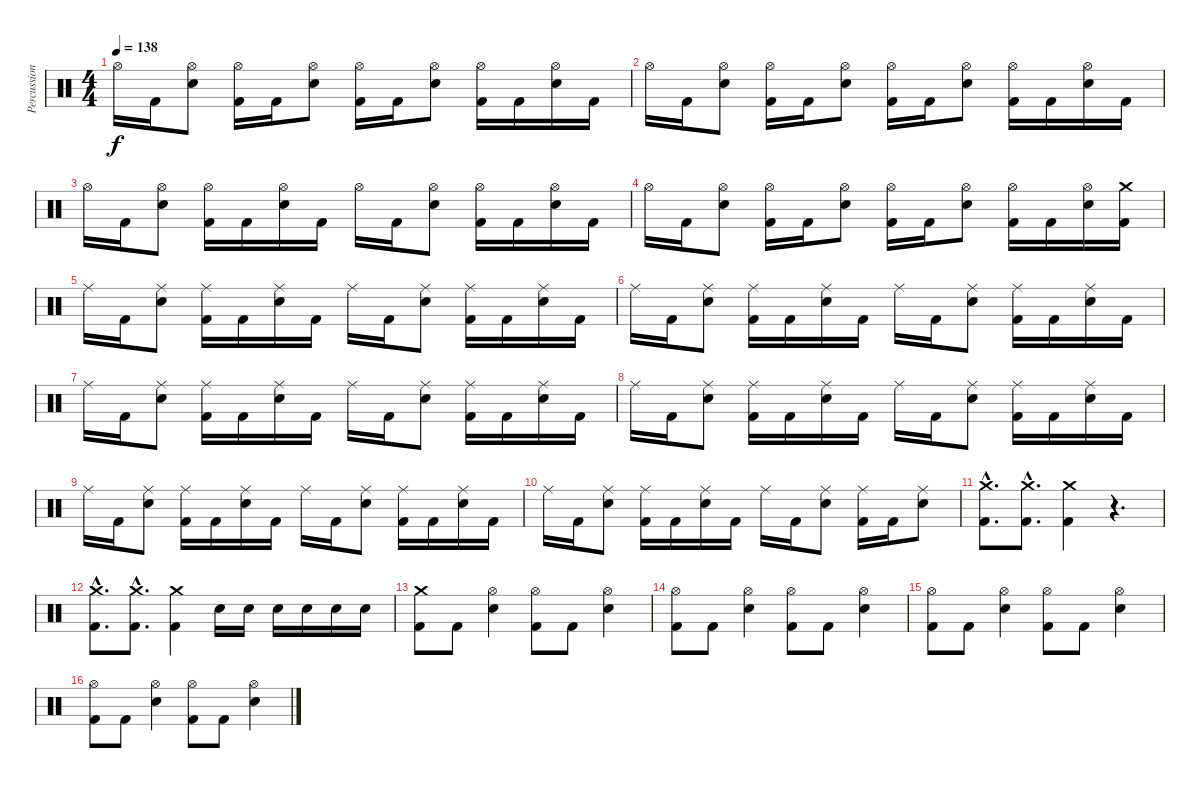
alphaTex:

\track ("Percussion" "Percussion") {instrument percussion}
\staff {score}
\articulation defaults
\ts (4 4)
\tempo 138
\clef neutral
\ks c "Hi-Hat (open)".16{dy f} "Kick (hit) 2".16
("Hi-Hat (open)" "Snare (hit) 2").8 ("Hi-Hat (open)" "Kick (hit) 2").16 "Kick (hit) 2".16 ("Hi-Hat (open)" "Snare (hit) 2").8 ("Hi-Hat (open)" "Kick (hit) 2").16 "Kick (hit) 2".16 ("Hi-Hat (open)" "Snare (hit) 2").8 ("Hi-Hat (open)" "Kick (hit) 2").16 "Kick (hit) 2".16 ("Hi-Hat (open)" "Snare (hit) 2").16 "Kick (hit) 2".16 |
"Hi-Hat (open)".16 "Kick (hit) 2".16 ("Hi-Hat (open)" "Snare (hit) 2").8 ("Hi-Hat (open)" "Kick (hit) 2").16 "Kick (hit) 2".16 ("Hi-Hat (open)" "Snare (hit) 2").8 ("Hi-Hat (open)" "Kick (hit) 2").16 "Kick (hit) 2".16 ("Hi-Hat (open)" "Snare (hit) 2").8 ("Hi-Hat (open)" "Kick (hit) 2").16 "Kick (hit) 2".16 ("Hi-Hat (open)" "Snare (hit) 2").16 "Kick (hit) 2".16 |
"Hi-Hat (open)".16 "Kick (hit) 2".16 ("Hi-Hat (open)" "Snare (hit) 2").8 ("Hi-Hat (open)" "Kick (hit) 2").16 "Kick (hit) 2".16 ("Hi-Hat (open)" "Snare (hit) 2").16 "Kick (hit) 2".16 "Hi-Hat (open)".16 "Kick (hit) 2".16 ("Hi-Hat (open)" "Snare (hit) 2").8 ("Hi-Hat (open)" "Kick (hit) 2").16 "Kick (hit) 2".16 ("Hi-Hat (open)" "Snare (hit) 2").16 "Kick (hit) 2".16 |
"Hi-Hat (open)".16 "Kick (hit) 2".16 ("Hi-Hat (open)" "Snare (hit) 2").8 ("Hi-Hat (open)" "Kick (hit) 2").16 "Kick (hit) 2".16 ("Hi-Hat (open)" "Snare (hit) 2").8 ("Hi-Hat (open)" "Kick (hit) 2").16 "Kick (hit) 2".16 ("Hi-Hat (open)" "Snare (hit) 2").8 ("Hi-Hat (open)" "Kick (hit) 2").16 "Kick (hit) 2".16 ("Hi-Hat (open)" "Snare (hit) 2").16 ("Crash medium (hit)" "Kick (hit) 2").16 |
"Ride (middle)".16 "Kick (hit) 2".16 ("Ride (middle)" "Snare (hit) 2").8 ("Ride (middle)" "Kick (hit) 2").16 "Kick (hit) 2".16 ("Ride (middle)" "Snare (hit) 2").16 "Kick (hit) 2".16 "Ride (middle)".16 "Kick (hit) 2".16 ("Ride (middle)" "Snare (hit) 2").8 ("Ride (middle)" "Kick (hit) 2").16 "Kick (hit) 2".16 ("Ride (middle)" "Snare (hit) 2").16 "Kick (hit) 2".16 |
"Ride (middle)".16 "Kick (hit) 2".16 ("Ride (middle)" "Snare (hit) 2").8 ("Ride (middle)" "Kick (hit) 2").16 "Kick (hit) 2".16 ("Ride (middle)" "Snare (hit) 2").16 "Kick (hit) 2".16 "Ride (middle)".16 "Kick (hit) 2".16 ("Ride (middle)" "Snare (hit) 2").8 ("Ride (middle)" "Kick (hit) 2").16 "Kick (hit) 2".16 ("Ride (middle)" "Snare (hit) 2").16 "Kick (hit) 2".16 |
"Ride (middle)".16 "Kick (hit) 2".16 ("Ride (middle)" "Snare (hit) 2").8 ("Ride (middle)" "Kick (hit) 2").16 "Kick (hit) 2".16 ("Ride (middle)" "Snare (hit) 2").16 "Kick (hit) 2".16 "Ride (middle)".16 "Kick (hit) 2".16 ("Ride (middle)" "Snare (hit) 2").8 ("Ride (middle)" "Kick (hit) 2").16 "Kick (hit) 2".16 ("Ride (middle)" "Snare (hit) 2").16 "Kick (hit) 2".16 |
"Ride (middle)".16 "Kick (hit) 2".16 ("Ride (middle)" "Snare (hit) 2").8 ("Ride (middle)" "Kick (hit) 2").16 "Kick (hit) 2".16 ("Ride (middle)" "Snare (hit) 2").16 "Kick (hit) 2".16 "Ride (middle)".16 "Kick (hit) 2".16 ("Ride (middle)" "Snare (hit) 2").8 ("Ride (middle)" "Kick (hit) 2").16 "Kick (hit) 2".16 ("Ride (middle)" "Snare (hit) 2").16 "Kick (hit) 2".16 |
"Ride (middle)".16 "Kick (hit) 2".16 ("Ride (middle)" "Snare (hit) 2").8 ("Ride (middle)" "Kick (hit) 2").16 "Kick (hit) 2".16 ("Ride (middle)" "Snare (hit) 2").16 "Kick (hit) 2".16 "Ride (middle)".16 "Kick (hit) 2".16 ("Ride (middle)" "Snare (hit) 2").8 ("Ride (middle)" "Kick (hit) 2").16 "Kick (hit) 2".16 ("Ride (middle)" "Snare (hit) 2").16 "Kick (hit) 2".16 |
"Ride (middle)".16 "Kick (hit) 2".16 ("Ride (middle)" "Snare (hit) 2").8 ("Ride (middle)" "Kick (hit) 2").16 "Kick (hit) 2".16 ("Ride (middle)" "Snare (hit) 2").16 "Kick (hit) 2".16 "Ride (middle)".16 "Kick (hit) 2".16 ("Ride (middle)" "Snare (hit) 2").8 ("Ride (middle)" "Kick (hit) 2").16 "Kick (hit) 2".16 ("Ride (middle)" "Snare (hit) 2").8 |
("Crash medium (hit)"{hac} "Kick (hit) 2"{hac}).8{d} ("Crash medium (hit)"{hac} "Kick (hit) 2"{hac}).8{d} ("Crash medium (hit)" "Kick (hit) 2").4 r.4{d} |
("Crash medium (hit)"{hac} "Kick (hit) 2"{hac}).8{d} ("Crash medium (hit)"{hac} "Kick (hit) 2"{hac}).8{d} ("Crash medium (hit)" "Kick (hit) 2").4 "Snare (hit) 2".16 "Snare (hit) 2".16 "Snare (hit) 2".16 "Snare (hit) 2".16 "Snare (hit) 2".16 "Snare (hit) 2".16 |
("Crash medium (hit)" "Kick (hit) 2").8 "Kick (hit) 2".8 ("Hi-Hat (open)" "Snare (hit) 2").4 ("Hi-Hat (open)" "Kick (hit) 2").8 "Kick (hit) 2".8 ("Hi-Hat (open)" "Snare (hit) 2").4 |
("Hi-Hat (open)" "Kick (hit) 2").8 "Kick (hit) 2".8 ("Hi-Hat (open)" "Snare (hit) 2").4 ("Hi-Hat (open)" "Kick (hit) 2").8 "Kick (hit) 2".8 ("Hi-Hat (open)" "Snare (hit) 2").4 |
("Hi-Hat (open)" "Kick (hit) 2").8 "Kick (hit) 2".8 ("Hi-Hat (open)" "Snare (hit) 2").4 ("Hi-Hat (open)" "Kick (hit) 2").8 "Kick (hit) 2".8 ("Hi-Hat (open)" "Snare (hit) 2").4 |
("Hi-Hat (open)" "Kick (hit) 2").8 "Kick (hit) 2".8 ("Hi-Hat (open)" "Snare (hit) 2").4 ("Hi-Hat (open)" "Kick (hit) 2").8 "Kick (hit) 2".8 ("Hi-Hat (open)" "Snare (hit) 2").4
